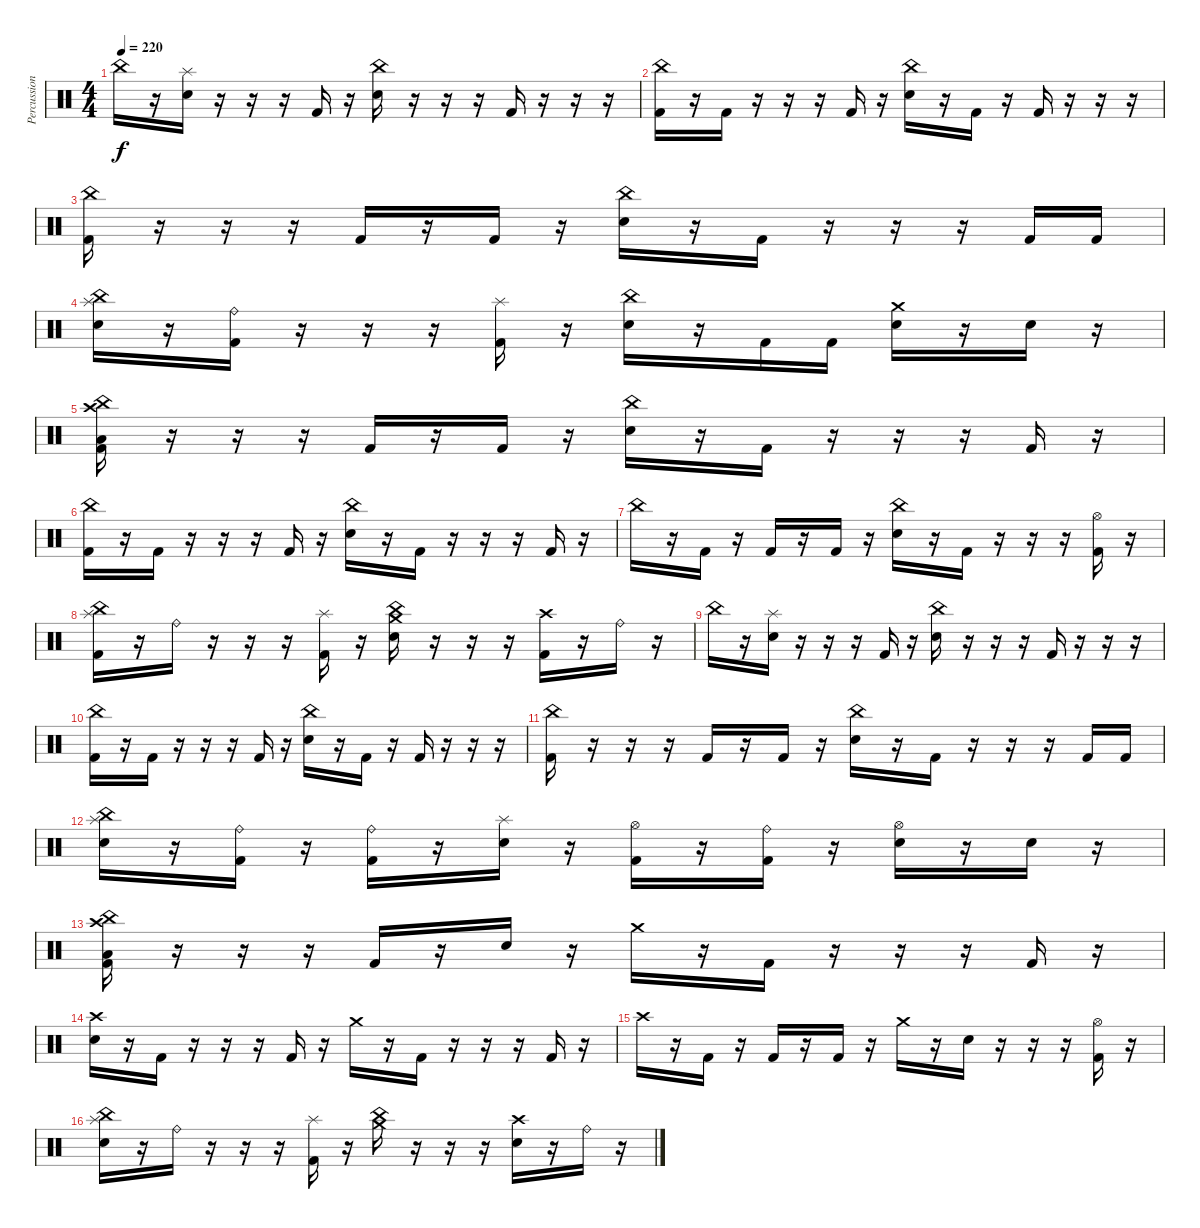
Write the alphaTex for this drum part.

\track ("Percussion" "Percussion") {instrument percussion}
\staff {score}
\articulation defaults
\ts (4 4)
\tempo 220
\clef neutral
\ks c "China (hit)".16{dy f}
r.16 ("Splash (hit)" "Electric Snare (hit)").16 r.16 r.16 r.16 "Kick (hit) 2".16 r.16 ("China (hit)" "Electric Snare (hit)").16 r.16 r.16 r.16 "Kick (hit) 2".16 r.16 r.16 r.16 |
("China (hit)" "Kick (hit) 2").16 r.16 "Kick (hit) 2".16 r.16 r.16 r.16 "Kick (hit) 2".16 r.16 ("China (hit)" "Electric Snare (hit)").16 r.16 "Kick (hit) 2".16 r.16 "Kick (hit) 2".16 r.16 r.16 r.16 |
("China (hit)" "Kick (hit) 2").16 r.16 r.16 r.16 "Kick (hit) 2".16 r.16 "Kick (hit) 2".16 r.16 ("China (hit)" "Electric Snare (hit)").16 r.16 "Kick (hit) 2".16 r.16 r.16 r.16 "Kick (hit) 2".16 "Kick (hit) 2".16 |
("China (hit)" "Splash (hit)" "Electric Snare (hit)").16 r.16 ("Ride (bell)" "Kick (hit) 2").16 r.16 r.16 r.16 ("Splash (hit)" "Kick (hit) 2").16 r.16 ("China (hit)" "Electric Snare (hit)").16 r.16 "Kick (hit) 2".16 "Kick (hit) 2".16 ("Crash medium (hit)" "Electric Snare (hit)").16 r.16 "Electric Snare (hit)".16 r.16 |
("Crash high (hit)" "China (hit)" "Low Floor Tom (hit)" "Kick (hit) 2").16 r.16 r.16 r.16 "Kick (hit) 2".16 r.16 "Kick (hit) 2".16 r.16 ("China (hit)" "Electric Snare (hit)").16 r.16 "Kick (hit) 2".16 r.16 r.16 r.16 "Kick (hit) 2".16 r.16 |
("China (hit)" "Kick (hit) 2").16 r.16 "Kick (hit) 2".16 r.16 r.16 r.16 "Kick (hit) 2".16 r.16 ("China (hit)" "Electric Snare (hit)").16 r.16 "Kick (hit) 2".16 r.16 r.16 r.16 "Kick (hit) 2".16 r.16 |
"China (hit)".16 r.16 "Kick (hit) 2".16 r.16 "Kick (hit) 2".16 r.16 "Kick (hit) 2".16 r.16 ("China (hit)" "Electric Snare (hit)").16 r.16 "Kick (hit) 2".16 r.16 r.16 r.16 ("Hi-Hat (open)" "Kick (hit) 2").16 r.16 |
("China (hit)" "Splash (hit)" "Kick (hit) 2").16 r.16 "Ride (bell)".16 r.16 r.16 r.16 ("Splash (hit)" "Kick (hit) 2").16 r.16 ("China (hit)" "Crash medium (hit)" "Electric Snare (hit)").16 r.16 r.16 r.16 ("Crash high (hit)" "Kick (hit) 2").16 r.16 "Ride (bell)".16 r.16 |
"China (hit)".16 r.16 ("Splash (hit)" "Electric Snare (hit)").16 r.16 r.16 r.16 "Kick (hit) 2".16 r.16 ("China (hit)" "Electric Snare (hit)").16 r.16 r.16 r.16 "Kick (hit) 2".16 r.16 r.16 r.16 |
("China (hit)" "Kick (hit) 2").16 r.16 "Kick (hit) 2".16 r.16 r.16 r.16 "Kick (hit) 2".16 r.16 ("China (hit)" "Electric Snare (hit)").16 r.16 "Kick (hit) 2".16 r.16 "Kick (hit) 2".16 r.16 r.16 r.16 |
("China (hit)" "Kick (hit) 2").16 r.16 r.16 r.16 "Kick (hit) 2".16 r.16 "Kick (hit) 2".16 r.16 ("China (hit)" "Electric Snare (hit)").16 r.16 "Kick (hit) 2".16 r.16 r.16 r.16 "Kick (hit) 2".16 "Kick (hit) 2".16 |
("China (hit)" "Splash (hit)" "Electric Snare (hit)").16 r.16 ("Ride (bell)" "Kick (hit) 2").16 r.16 ("Ride (bell)" "Kick (hit) 2").16 r.16 ("Splash (hit)" "Electric Snare (hit)").16 r.16 ("Hi-Hat (open)" "Kick (hit) 2").16 r.16 ("Ride (bell)" "Kick (hit) 2").16 r.16 ("Hi-Hat (open)" "Electric Snare (hit)").16 r.16 "Electric Snare (hit)".16 r.16 |
("Crash high (hit)" "China (hit)" "Low Floor Tom (hit)" "Kick (hit) 2").16 r.16 r.16 r.16 "Kick (hit) 2".16 r.16 "Electric Snare (hit)".16 r.16 "Crash medium (hit)".16 r.16 "Kick (hit) 2".16 r.16 r.16 r.16 "Kick (hit) 2".16 r.16 |
("Crash high (hit)" "Electric Snare (hit)").16 r.16 "Kick (hit) 2".16 r.16 r.16 r.16 "Kick (hit) 2".16 r.16 "Crash medium (hit)".16 r.16 "Kick (hit) 2".16 r.16 r.16 r.16 "Kick (hit) 2".16 r.16 |
"Crash high (hit)".16 r.16 "Kick (hit) 2".16 r.16 "Kick (hit) 2".16 r.16 "Kick (hit) 2".16 r.16 "Crash medium (hit)".16 r.16 "Electric Snare (hit)".16 r.16 r.16 r.16 ("Hi-Hat (open)" "Kick (hit) 2").16 r.16 |
("China (hit)" "Splash (hit)" "Electric Snare (hit)").16 r.16 "Ride (bell)".16 r.16 r.16 r.16 ("Splash (hit)" "Kick (hit) 2").16 r.16 ("China (hit)" "Crash medium (hit)").16 r.16 r.16 r.16 ("Crash high (hit)" "Electric Snare (hit)").16 r.16 "Ride (bell)".16 r.16
